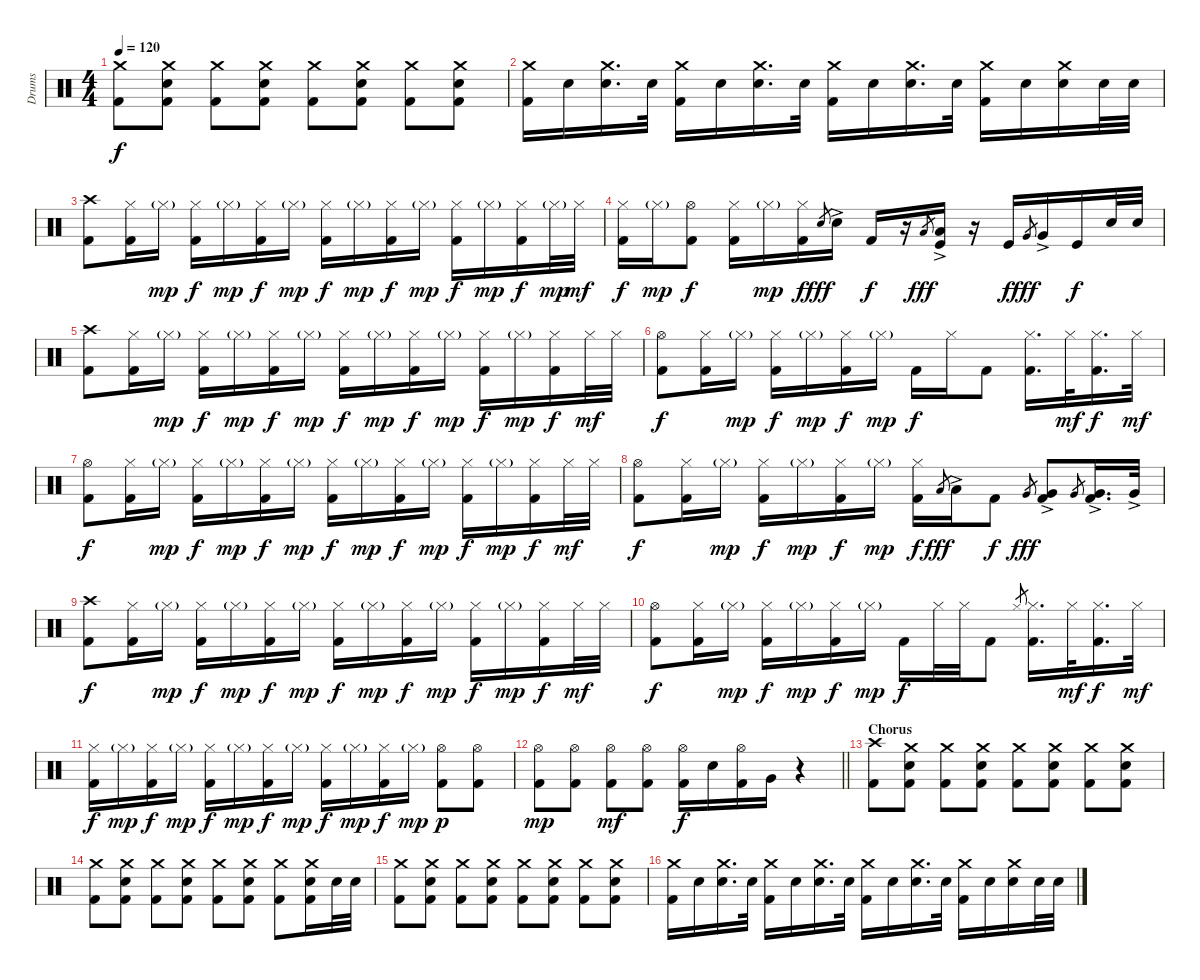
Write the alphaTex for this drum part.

\track ("Drums" "Drums") {instrument percussion}
\staff {score}
\articulation defaults
\ts (4 4)
\tempo 120
\clef neutral
\ks c
("Crash medium (hit)" "Kick (hit) 2").8{dy f} ("Crash medium (hit)" "Snare (hit) 2" "Kick (hit) 2").8 ("Crash medium (hit)" "Kick (hit) 2").8 ("Crash medium (hit)" "Snare (hit) 2" "Kick (hit) 2").8 ("Crash medium (hit)" "Kick (hit) 2").8 ("Crash medium (hit)" "Snare (hit) 2" "Kick (hit) 2").8 ("Crash medium (hit)" "Kick (hit) 2").8 ("Crash medium (hit)" "Snare (hit) 2" "Kick (hit) 2").8 |
("Crash medium (hit)" "Kick (hit) 2").16 "Snare (hit) 2".16 ("Crash medium (hit)" "Snare (hit) 2").16{d} "Snare (hit) 2".32 ("Crash medium (hit)" "Kick (hit) 2").16 "Snare (hit) 2".16 ("Crash medium (hit)" "Snare (hit) 2").16{d} "Snare (hit) 2".32 ("Crash medium (hit)" "Kick (hit) 2").16 "Snare (hit) 2".16 ("Crash medium (hit)" "Snare (hit) 2").16{d} "Snare (hit) 2".32 ("Crash medium (hit)" "Kick (hit) 2").16 "Snare (hit) 2".16 ("Crash medium (hit)" "Snare (hit) 2").16 "Snare (hit) 2".32 "Snare (hit) 2".32 |
("Crash high (hit)" "Kick (hit) 2").8 ("Hi-Hat (closed)" "Kick (hit) 2").16 "Hi-Hat (closed)"{g}.16{dy mp} ("Hi-Hat (closed)" "Kick (hit) 2").16{dy f} "Hi-Hat (closed)"{g}.16{dy mp} ("Hi-Hat (closed)" "Kick (hit) 2").16{dy f} "Hi-Hat (closed)"{g}.16{dy mp} ("Hi-Hat (closed)" "Kick (hit) 2").16{dy f} "Hi-Hat (closed)"{g}.16{dy mp} ("Hi-Hat (closed)" "Kick (hit) 2").16{dy f} "Hi-Hat (closed)"{g}.16{dy mp} ("Hi-Hat (closed)" "Kick (hit) 2").16{dy f} "Hi-Hat (closed)"{g}.16{dy mp} ("Hi-Hat (closed)" "Kick (hit) 2").16{dy f} "Hi-Hat (closed)"{g}.32{dy mp} "Hi-Hat (closed)".32{dy mf} |
("Hi-Hat (closed)" "Kick (hit) 2").16{dy f} "Hi-Hat (closed)"{g}.16{dy mp} ("Hi-Hat (open)" "Kick (hit) 2").8{dy f} ("Hi-Hat (closed)" "Kick (hit) 2").16 "Hi-Hat (closed)"{g}.16{dy mp} ("Hi-Hat (closed)" "Kick (hit) 2").16{dy f} "Electric Snare (hit)".8{gr dy fff} "Electric Snare (hit)"{ac}.16 "Kick (hit) 2".16{dy f} r.16 "Low Tom (hit)".8{gr dy fff} ("Low Tom (hit)"{ac} "Kick (hit)").16 r.16 "Kick (hit)".16{dy f} "Very Low Tom (hit)".8{gr dy fff} "Very Low Tom (hit)"{ac}.16 "Kick (hit)".16{dy f} "Electric Snare (hit)".32 "Electric Snare (hit)".32 |
("Crash high (hit)" "Kick (hit) 2").8 ("Hi-Hat (closed)" "Kick (hit) 2").16 "Hi-Hat (closed)"{g}.16{dy mp} ("Hi-Hat (closed)" "Kick (hit) 2").16{dy f} "Hi-Hat (closed)"{g}.16{dy mp} ("Hi-Hat (closed)" "Kick (hit) 2").16{dy f} "Hi-Hat (closed)"{g}.16{dy mp} ("Hi-Hat (closed)" "Kick (hit) 2").16{dy f} "Hi-Hat (closed)"{g}.16{dy mp} ("Hi-Hat (closed)" "Kick (hit) 2").16{dy f} "Hi-Hat (closed)"{g}.16{dy mp} ("Hi-Hat (closed)" "Kick (hit) 2").16{dy f} "Hi-Hat (closed)"{g}.16{dy mp} ("Hi-Hat (closed)" "Kick (hit) 2").16{dy f} "Hi-Hat (closed)".32{dy mf} "Hi-Hat (closed)".32 |
("Hi-Hat (open)" "Kick (hit) 2").8{dy f} ("Hi-Hat (closed)" "Kick (hit) 2").16 "Hi-Hat (closed)"{g}.16{dy mp} ("Hi-Hat (closed)" "Kick (hit) 2").16{dy f} "Hi-Hat (closed)"{g}.16{dy mp} ("Hi-Hat (closed)" "Kick (hit) 2").16{dy f} "Hi-Hat (closed)"{g}.16{dy mp} "Kick (hit) 2".16{dy f} "Hi-Hat (closed)".16 "Kick (hit) 2".8 ("Hi-Hat (closed)" "Kick (hit) 2").16{d} "Hi-Hat (closed)".32{dy mf} ("Hi-Hat (closed)" "Kick (hit) 2").16{d dy f} "Hi-Hat (closed)".32{dy mf} |
("Hi-Hat (open)" "Kick (hit) 2").8{dy f} ("Hi-Hat (closed)" "Kick (hit) 2").16 "Hi-Hat (closed)"{g}.16{dy mp} ("Hi-Hat (closed)" "Kick (hit) 2").16{dy f} "Hi-Hat (closed)"{g}.16{dy mp} ("Hi-Hat (closed)" "Kick (hit) 2").16{dy f} "Hi-Hat (closed)"{g}.16{dy mp} ("Hi-Hat (closed)" "Kick (hit) 2").16{dy f} "Hi-Hat (closed)"{g}.16{dy mp} ("Hi-Hat (closed)" "Kick (hit) 2").16{dy f} "Hi-Hat (closed)"{g}.16{dy mp} ("Hi-Hat (closed)" "Kick (hit) 2").16{dy f} "Hi-Hat (closed)"{g}.16{dy mp} ("Hi-Hat (closed)" "Kick (hit) 2").16{dy f} "Hi-Hat (closed)".32{dy mf} "Hi-Hat (closed)".32 |
("Hi-Hat (open)" "Kick (hit) 2").8{dy f} ("Hi-Hat (closed)" "Kick (hit) 2").16 "Hi-Hat (closed)"{g}.16{dy mp} ("Hi-Hat (closed)" "Kick (hit) 2").16{dy f} "Hi-Hat (closed)"{g}.16{dy mp} ("Hi-Hat (closed)" "Kick (hit) 2").16{dy f} "Hi-Hat (closed)"{g}.16{dy mp} ("Hi-Hat (closed)" "Kick (hit) 2").16{dy f} "Low Tom (hit)".8{gr dy fff} "Low Tom (hit)"{ac}.16 "Kick (hit) 2".8{dy f} "Very Low Tom (hit)".8{gr dy fff} ("Very Low Tom (hit)"{ac} "Kick (hit) 2").8 "Very Low Tom (hit)".8{gr} ("Very Low Tom (hit)"{ac} "Kick (hit) 2").16{d} "Very Low Tom (hit)"{ac}.32 |
("Crash high (hit)" "Kick (hit) 2").8{dy f} ("Hi-Hat (closed)" "Kick (hit) 2").16 "Hi-Hat (closed)"{g}.16{dy mp} ("Hi-Hat (closed)" "Kick (hit) 2").16{dy f} "Hi-Hat (closed)"{g}.16{dy mp} ("Hi-Hat (closed)" "Kick (hit) 2").16{dy f} "Hi-Hat (closed)"{g}.16{dy mp} ("Hi-Hat (closed)" "Kick (hit) 2").16{dy f} "Hi-Hat (closed)"{g}.16{dy mp} ("Hi-Hat (closed)" "Kick (hit) 2").16{dy f} "Hi-Hat (closed)"{g}.16{dy mp} ("Hi-Hat (closed)" "Kick (hit) 2").16{dy f} "Hi-Hat (closed)"{g}.16{dy mp} ("Hi-Hat (closed)" "Kick (hit) 2").16{dy f} "Hi-Hat (closed)".32{dy mf} "Hi-Hat (closed)".32 |
("Hi-Hat (open)" "Kick (hit) 2").8{dy f} ("Hi-Hat (closed)" "Kick (hit) 2").16 "Hi-Hat (closed)"{g}.16{dy mp} ("Hi-Hat (closed)" "Kick (hit) 2").16{dy f} "Hi-Hat (closed)"{g}.16{dy mp} ("Hi-Hat (closed)" "Kick (hit) 2").16{dy f} "Hi-Hat (closed)"{g}.16{dy mp} "Kick (hit) 2".16{dy f} "Hi-Hat (closed)".32 "Hi-Hat (closed)".32 "Kick (hit) 2".8 "Hi-Hat (closed)".8{gr} ("Hi-Hat (closed)" "Kick (hit) 2").16{d} "Hi-Hat (closed)".32{dy mf} ("Hi-Hat (closed)" "Kick (hit) 2").16{d dy f} "Hi-Hat (closed)".32{dy mf} |
("Hi-Hat (closed)" "Kick (hit) 2").16{dy f} "Hi-Hat (closed)"{g}.16{dy mp} ("Hi-Hat (closed)" "Kick (hit) 2").16{dy f} "Hi-Hat (closed)"{g}.16{dy mp} ("Hi-Hat (closed)" "Kick (hit) 2").16{dy f} "Hi-Hat (closed)"{g}.16{dy mp} ("Hi-Hat (closed)" "Kick (hit) 2").16{dy f} "Hi-Hat (closed)"{g}.16{dy mp} ("Hi-Hat (closed)" "Kick (hit) 2").16{dy f} "Hi-Hat (closed)"{g}.16{dy mp} ("Hi-Hat (closed)" "Kick (hit) 2").16{dy f} "Hi-Hat (closed)"{g}.16{dy mp} ("Hi-Hat (open)" "Kick (hit) 2").8{dy p} ("Hi-Hat (open)" "Kick (hit) 2").8 |
\barLineRight lightlight
("Hi-Hat (open)" "Kick (hit) 2").8{dy mp} ("Hi-Hat (open)" "Kick (hit) 2").8 ("Hi-Hat (open)" "Kick (hit) 2").8{dy mf} ("Hi-Hat (open)" "Kick (hit) 2").8 ("Hi-Hat (open)" "Kick (hit) 2").16{dy f} "Snare (hit) 2".16 ("Hi-Hat (open)" "Kick (hit) 2").16 "Very Low Tom (hit)".16 r.4 |
\section ("" "Chorus")
("Crash high (hit)" "Kick (hit) 2").8 ("Crash medium (hit)" "Snare (hit) 2" "Kick (hit) 2").8 ("Crash medium (hit)" "Kick (hit) 2").8 ("Crash medium (hit)" "Snare (hit) 2" "Kick (hit) 2").8 ("Crash medium (hit)" "Kick (hit) 2").8 ("Crash medium (hit)" "Snare (hit) 2" "Kick (hit) 2").8 ("Crash medium (hit)" "Kick (hit) 2").8 ("Crash medium (hit)" "Snare (hit) 2" "Kick (hit) 2").8 |
("Crash medium (hit)" "Kick (hit) 2").8 ("Crash medium (hit)" "Snare (hit) 2" "Kick (hit) 2").8 ("Crash medium (hit)" "Kick (hit) 2").8 ("Crash medium (hit)" "Snare (hit) 2" "Kick (hit) 2").8 ("Crash medium (hit)" "Kick (hit) 2").8 ("Crash medium (hit)" "Snare (hit) 2" "Kick (hit) 2").8 ("Crash medium (hit)" "Kick (hit) 2").8 ("Crash medium (hit)" "Snare (hit) 2" "Kick (hit) 2").16 "Snare (hit) 2".32 "Snare (hit) 2".32 |
("Crash medium (hit)" "Kick (hit) 2").8 ("Crash medium (hit)" "Snare (hit) 2" "Kick (hit) 2").8 ("Crash medium (hit)" "Kick (hit) 2").8 ("Crash medium (hit)" "Snare (hit) 2" "Kick (hit) 2").8 ("Crash medium (hit)" "Kick (hit) 2").8 ("Crash medium (hit)" "Snare (hit) 2" "Kick (hit) 2").8 ("Crash medium (hit)" "Kick (hit) 2").8 ("Crash medium (hit)" "Snare (hit) 2" "Kick (hit) 2").8 |
("Crash medium (hit)" "Kick (hit) 2").16 "Snare (hit) 2".16 ("Crash medium (hit)" "Snare (hit) 2").16{d} "Snare (hit) 2".32 ("Crash medium (hit)" "Kick (hit) 2").16 "Snare (hit) 2".16 ("Crash medium (hit)" "Snare (hit) 2").16{d} "Snare (hit) 2".32 ("Crash medium (hit)" "Kick (hit) 2").16 "Snare (hit) 2".16 ("Crash medium (hit)" "Snare (hit) 2").16{d} "Snare (hit) 2".32 ("Crash medium (hit)" "Kick (hit) 2").16 "Snare (hit) 2".16 ("Crash medium (hit)" "Snare (hit) 2").16 "Snare (hit) 2".32 "Snare (hit) 2".32
